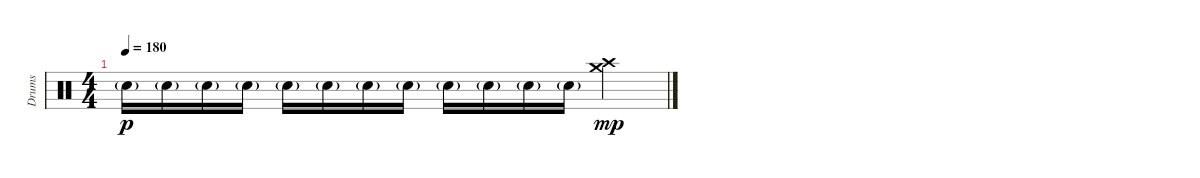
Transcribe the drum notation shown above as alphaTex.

\track ("Drums" "Drums") {instrument percussion}
\staff {score}
\articulation defaults
\ts (4 4)
\tempo 180
\clef neutral
\ks c "Electric Snare (hit)"{g}.16{dy p} "Electric Snare (hit)"{g}.16 "Electric Snare (hit)"{g}.16 "Electric Snare (hit)"{g}.16 "Electric Snare (hit)"{g}.16 "Electric Snare (hit)"{g}.16 "Electric Snare (hit)"{g}.16 "Electric Snare (hit)"{g}.16 "Electric Snare (hit)"{g}.16 "Electric Snare (hit)"{g}.16 "Electric Snare (hit)"{g}.16 "Electric Snare (hit)"{g}.16
("Crash medium (hit)" "Crash high (hit)").4{dy mp volume 12}
